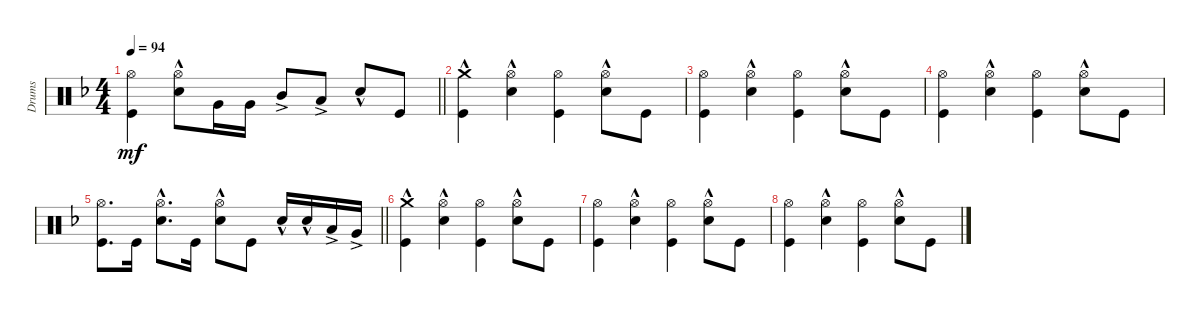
\track ("Drums" "Drums") {instrument percussion}
\staff {score}
\articulation defaults
\ts (4 4)
\tempo 94
\clef neutral
\barLineRight lightlight
\ks dminor
("Kick (hit)" "Hi-Hat (open)").4{dy mf} ("Hi-Hat (open)" "Snare (hit) 2"{hac}).8 "Very Low Tom (hit)".16 "Very Low Tom (hit)".16 "Mid Tom (hit)"{ac}.8 "Low Tom (hit)"{ac}.8 "Snare (hit) 2"{hac}.8 "Kick (hit)".8 |
("Crash medium (hit)"{hac} "Kick (hit)").4 ("Hi-Hat (open)" "Snare (hit) 2"{hac}).4 ("Hi-Hat (open)" "Kick (hit)").4 ("Hi-Hat (open)" "Snare (hit) 2"{hac}).8 "Kick (hit)".8 |
("Kick (hit)" "Hi-Hat (open)").4 ("Hi-Hat (open)" "Snare (hit) 2"{hac}).4 ("Hi-Hat (open)" "Kick (hit)").4 ("Hi-Hat (open)" "Snare (hit) 2"{hac}).8 "Kick (hit)".8 |
("Kick (hit)" "Hi-Hat (open)").4 ("Hi-Hat (open)" "Snare (hit) 2"{hac}).4 ("Hi-Hat (open)" "Kick (hit)").4 ("Hi-Hat (open)" "Snare (hit) 2"{hac}).8 "Kick (hit)".8 |
\barLineRight lightlight
("Kick (hit)" "Hi-Hat (open)").8{d} "Kick (hit)".16 ("Snare (hit) 2"{hac} "Hi-Hat (open)").8{d} "Kick (hit)".16 ("Snare (hit) 2"{hac} "Hi-Hat (open)").8 "Kick (hit)".8 "Snare (hit) 2"{hac}.16 "Snare (hit) 2"{hac}.16 "Low Tom (hit)"{ac}.16 "Very Low Tom (hit)"{ac}.16 |
("Crash medium (hit)"{hac} "Kick (hit)").4 ("Hi-Hat (open)" "Snare (hit) 2"{hac}).4 ("Hi-Hat (open)" "Kick (hit)").4 ("Hi-Hat (open)" "Snare (hit) 2"{hac}).8 "Kick (hit)".8 |
("Kick (hit)" "Hi-Hat (open)").4 ("Hi-Hat (open)" "Snare (hit) 2"{hac}).4 ("Hi-Hat (open)" "Kick (hit)").4 ("Hi-Hat (open)" "Snare (hit) 2"{hac}).8 "Kick (hit)".8 |
("Kick (hit)" "Hi-Hat (open)").4 ("Hi-Hat (open)" "Snare (hit) 2"{hac}).4 ("Hi-Hat (open)" "Kick (hit)").4 ("Hi-Hat (open)" "Snare (hit) 2"{hac}).8 "Kick (hit)".8
